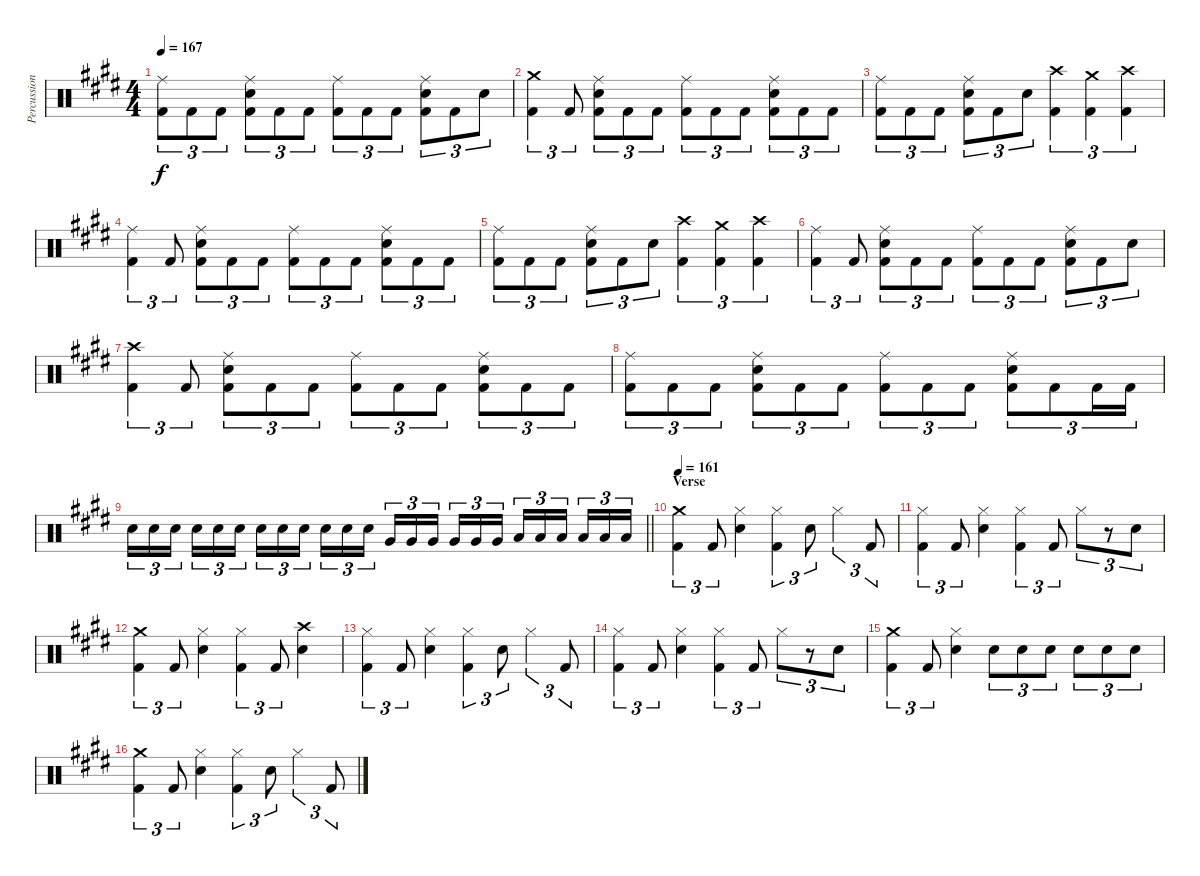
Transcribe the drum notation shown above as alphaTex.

\track ("Percussion" "Percussion") {instrument percussion}
\staff {score}
\articulation defaults
\ts (4 4)
\tempo 167
\clef neutral
\ks e
("Ride (middle)" "Kick (hit) 2").8{tu (3 2) dy f} "Kick (hit) 2".8{tu (3 2)} "Kick (hit) 2".8{tu (3 2)} ("Ride (middle)" "Snare (hit) 2" "Kick (hit) 2").8{tu (3 2)} "Kick (hit) 2".8{tu (3 2)} "Kick (hit) 2".8{tu (3 2)} ("Ride (middle)" "Kick (hit) 2").8{tu (3 2)} "Kick (hit) 2".8{tu (3 2)} "Kick (hit) 2".8{tu (3 2)} ("Ride (middle)" "Snare (hit) 2" "Kick (hit) 2").8{tu (3 2)} "Kick (hit) 2".8{tu (3 2)} "Snare (hit) 2".8{tu (3 2)} |
("Crash medium (hit)" "Kick (hit) 2").4{tu (3 2)} "Kick (hit) 2".8{tu (3 2)} ("Ride (middle)" "Snare (hit) 2" "Kick (hit) 2").8{tu (3 2)} "Kick (hit) 2".8{tu (3 2)} "Kick (hit) 2".8{tu (3 2)} ("Ride (middle)" "Kick (hit) 2").8{tu (3 2)} "Kick (hit) 2".8{tu (3 2)} "Kick (hit) 2".8{tu (3 2)} ("Ride (middle)" "Snare (hit) 2" "Kick (hit) 2").8{tu (3 2)} "Kick (hit) 2".8{tu (3 2)} "Kick (hit) 2".8{tu (3 2)} |
("Ride (middle)" "Kick (hit) 2").8{tu (3 2)} "Kick (hit) 2".8{tu (3 2)} "Kick (hit) 2".8{tu (3 2)} ("Ride (middle)" "Snare (hit) 2" "Kick (hit) 2").8{tu (3 2)} "Kick (hit) 2".8{tu (3 2)} "Snare (hit) 2".8{tu (3 2)} ("Crash high (hit)" "Kick (hit) 2").4{tu (3 2)} ("Crash medium (hit)" "Kick (hit) 2").4{tu (3 2)} ("Crash high (hit)" "Kick (hit) 2").4{tu (3 2)} |
("Ride (middle)" "Kick (hit) 2").4{tu (3 2)} "Kick (hit) 2".8{tu (3 2)} ("Ride (middle)" "Snare (hit) 2" "Kick (hit) 2").8{tu (3 2)} "Kick (hit) 2".8{tu (3 2)} "Kick (hit) 2".8{tu (3 2)} ("Ride (middle)" "Kick (hit) 2").8{tu (3 2)} "Kick (hit) 2".8{tu (3 2)} "Kick (hit) 2".8{tu (3 2)} ("Ride (middle)" "Snare (hit) 2" "Kick (hit) 2").8{tu (3 2)} "Kick (hit) 2".8{tu (3 2)} "Kick (hit) 2".8{tu (3 2)} |
("Ride (middle)" "Kick (hit) 2").8{tu (3 2)} "Kick (hit) 2".8{tu (3 2)} "Kick (hit) 2".8{tu (3 2)} ("Ride (middle)" "Snare (hit) 2" "Kick (hit) 2").8{tu (3 2)} "Kick (hit) 2".8{tu (3 2)} "Snare (hit) 2".8{tu (3 2)} ("Crash high (hit)" "Kick (hit) 2").4{tu (3 2)} ("Crash medium (hit)" "Kick (hit) 2").4{tu (3 2)} ("Crash high (hit)" "Kick (hit) 2").4{tu (3 2)} |
("Ride (middle)" "Kick (hit) 2").4{tu (3 2)} "Kick (hit) 2".8{tu (3 2)} ("Ride (middle)" "Snare (hit) 2" "Kick (hit) 2").8{tu (3 2)} "Kick (hit) 2".8{tu (3 2)} "Kick (hit) 2".8{tu (3 2)} ("Ride (middle)" "Kick (hit) 2").8{tu (3 2)} "Kick (hit) 2".8{tu (3 2)} "Kick (hit) 2".8{tu (3 2)} ("Ride (middle)" "Snare (hit) 2" "Kick (hit) 2").8{tu (3 2)} "Kick (hit) 2".8{tu (3 2)} "Snare (hit) 2".8{tu (3 2)} |
("Crash high (hit)" "Kick (hit) 2").4{tu (3 2)} "Kick (hit) 2".8{tu (3 2)} ("Ride (middle)" "Snare (hit) 2" "Kick (hit) 2").8{tu (3 2)} "Kick (hit) 2".8{tu (3 2)} "Kick (hit) 2".8{tu (3 2)} ("Ride (middle)" "Kick (hit) 2").8{tu (3 2)} "Kick (hit) 2".8{tu (3 2)} "Kick (hit) 2".8{tu (3 2)} ("Ride (middle)" "Snare (hit) 2" "Kick (hit) 2").8{tu (3 2)} "Kick (hit) 2".8{tu (3 2)} "Kick (hit) 2".8{tu (3 2)} |
("Ride (middle)" "Kick (hit) 2").8{tu (3 2)} "Kick (hit) 2".8{tu (3 2)} "Kick (hit) 2".8{tu (3 2)} ("Ride (middle)" "Snare (hit) 2" "Kick (hit) 2").8{tu (3 2)} "Kick (hit) 2".8{tu (3 2)} "Kick (hit) 2".8{tu (3 2)} ("Ride (middle)" "Kick (hit) 2").8{tu (3 2)} "Kick (hit) 2".8{tu (3 2)} "Kick (hit) 2".8{tu (3 2)} ("Ride (middle)" "Snare (hit) 2" "Kick (hit) 2").8{tu (3 2)} "Kick (hit) 2".8{tu (3 2)} "Kick (hit) 2".16{tu (3 2)} "Kick (hit) 2".16{tu (3 2)} |
\barLineRight lightlight "Snare (hit) 2".16{tu (3 2)} "Snare (hit) 2".16{tu (3 2)} "Snare (hit) 2".16{tu (3 2) beam splitsecondary} "Snare (hit) 2".16{tu (3 2)} "Snare (hit) 2".16{tu (3 2)} "Snare (hit) 2".16{tu (3 2)} "Snare (hit) 2".16{tu (3 2)} "Snare (hit) 2".16{tu (3 2)} "Snare (hit) 2".16{tu (3 2) beam splitsecondary} "Snare (hit) 2".16{tu (3 2)} "Snare (hit) 2".16{tu (3 2)} "Snare (hit) 2".16{tu (3 2)} "Very Low Tom (hit)".16{tu (3 2)} "Very Low Tom (hit)".16{tu (3 2)} "Very Low Tom (hit)".16{tu (3 2) beam splitsecondary} "Very Low Tom (hit)".16{tu (3 2)} "Very Low Tom (hit)".16{tu (3 2)} "Very Low Tom (hit)".16{tu (3 2)} "Low Floor Tom (hit)".16{tu (3 2)} "Low Floor Tom (hit)".16{tu (3 2)} "Low Floor Tom (hit)".16{tu (3 2) beam splitsecondary} "Low Floor Tom (hit)".16{tu (3 2)} "Low Floor Tom (hit)".16{tu (3 2)} "Low Floor Tom (hit)".16{tu (3 2)}
|
\section ("" "Verse")
\tempo 161
("Crash medium (hit)" "Kick (hit) 2").4{tu (3 2)} "Kick (hit) 2".8{tu (3 2)} ("Hi-Hat (closed)" "Snare (hit) 2").4 ("Hi-Hat (closed)" "Kick (hit) 2").4{tu (3 2)} "Snare (hit) 2".8{tu (3 2)} "Hi-Hat (closed)".4{tu (3 2)} "Kick (hit) 2".8{tu (3 2)} |
("Hi-Hat (closed)" "Kick (hit) 2").4{tu (3 2)} "Kick (hit) 2".8{tu (3 2)} ("Hi-Hat (closed)" "Snare (hit) 2").4 ("Hi-Hat (closed)" "Kick (hit) 2").4{tu (3 2)} "Kick (hit) 2".8{tu (3 2)} "Hi-Hat (closed)".8{tu (3 2)} r.8{tu (3 2)} "Snare (hit) 2".8{tu (3 2)} |
("Crash medium (hit)" "Kick (hit) 2").4{tu (3 2)} "Kick (hit) 2".8{tu (3 2)} ("Hi-Hat (closed)" "Snare (hit) 2").4 ("Hi-Hat (closed)" "Kick (hit) 2").4{tu (3 2)} "Kick (hit) 2".8{tu (3 2)} ("Crash high (hit)" "Snare (hit) 2").4 |
("Hi-Hat (closed)" "Kick (hit) 2").4{tu (3 2)} "Kick (hit) 2".8{tu (3 2)} ("Hi-Hat (closed)" "Snare (hit) 2").4 ("Hi-Hat (closed)" "Kick (hit) 2").4{tu (3 2)} "Snare (hit) 2".8{tu (3 2)} "Hi-Hat (closed)".4{tu (3 2)} "Kick (hit) 2".8{tu (3 2)} |
("Hi-Hat (closed)" "Kick (hit) 2").4{tu (3 2)} "Kick (hit) 2".8{tu (3 2)} ("Hi-Hat (closed)" "Snare (hit) 2").4 ("Hi-Hat (closed)" "Kick (hit) 2").4{tu (3 2)} "Kick (hit) 2".8{tu (3 2)} "Hi-Hat (closed)".8{tu (3 2)} r.8{tu (3 2)} "Snare (hit) 2".8{tu (3 2)} |
("Crash medium (hit)" "Kick (hit) 2").4{tu (3 2)} "Kick (hit) 2".8{tu (3 2)} ("Hi-Hat (closed)" "Snare (hit) 2").4 "Snare (hit) 2".8{tu (3 2)} "Snare (hit) 2".8{tu (3 2)} "Snare (hit) 2".8{tu (3 2)} "Snare (hit) 2".8{tu (3 2)} "Snare (hit) 2".8{tu (3 2)} "Snare (hit) 2".8{tu (3 2)} |
("Crash medium (hit)" "Kick (hit) 2").4{tu (3 2)} "Kick (hit) 2".8{tu (3 2)} ("Hi-Hat (closed)" "Snare (hit) 2").4 ("Hi-Hat (closed)" "Kick (hit) 2").4{tu (3 2)} "Snare (hit) 2".8{tu (3 2)} "Hi-Hat (closed)".4{tu (3 2)} "Kick (hit) 2".8{tu (3 2)}
